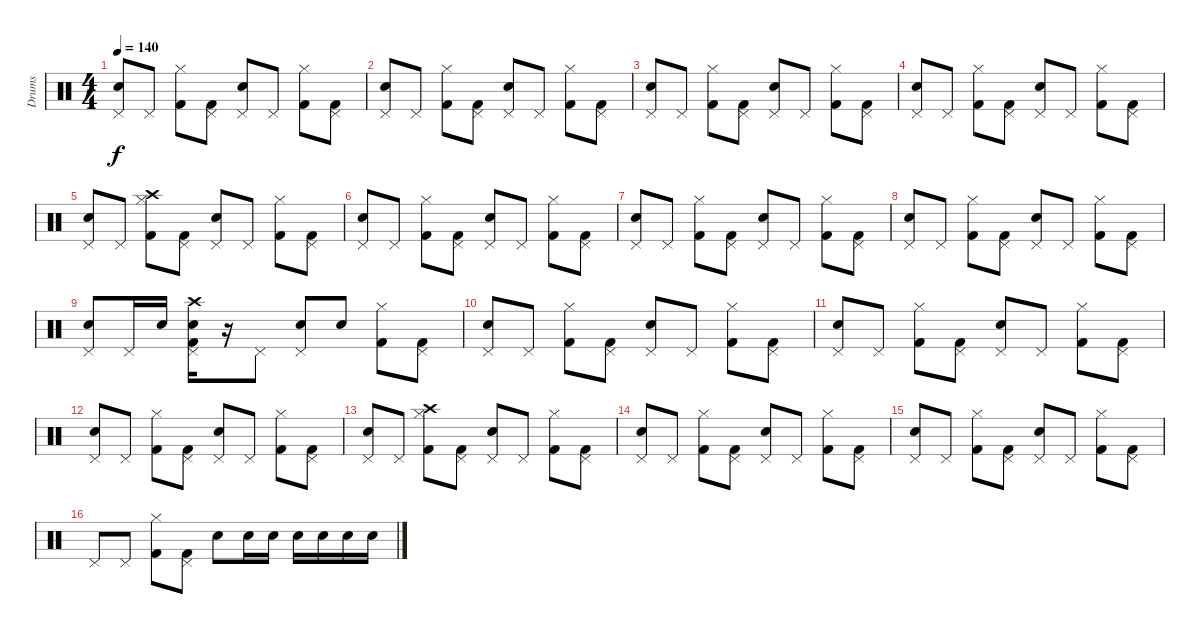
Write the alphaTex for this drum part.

\track ("Drums" "Drums") {instrument percussion}
\staff {score}
\articulation defaults
\ts (4 4)
\tempo 140
\clef neutral
\ks c
("Electric Snare (hit)" "Pedal Hi-Hat (hit)").8{dy f} "Pedal Hi-Hat (hit)".8 ("Kick (hit) 2" "Hi-Hat (closed)").8 ("Kick (hit) 2" "Pedal Hi-Hat (hit)").8 ("Electric Snare (hit)" "Pedal Hi-Hat (hit)").8 "Pedal Hi-Hat (hit)".8 ("Kick (hit) 2" "Hi-Hat (closed)").8 ("Kick (hit) 2" "Pedal Hi-Hat (hit)").8 |
("Electric Snare (hit)" "Pedal Hi-Hat (hit)").8 "Pedal Hi-Hat (hit)".8 ("Kick (hit) 2" "Hi-Hat (closed)").8 ("Kick (hit) 2" "Pedal Hi-Hat (hit)").8 ("Electric Snare (hit)" "Pedal Hi-Hat (hit)").8 "Pedal Hi-Hat (hit)".8 ("Kick (hit) 2" "Hi-Hat (closed)").8 ("Kick (hit) 2" "Pedal Hi-Hat (hit)").8 |
("Electric Snare (hit)" "Pedal Hi-Hat (hit)").8 "Pedal Hi-Hat (hit)".8 ("Kick (hit) 2" "Hi-Hat (closed)").8 ("Kick (hit) 2" "Pedal Hi-Hat (hit)").8 ("Electric Snare (hit)" "Pedal Hi-Hat (hit)").8 "Pedal Hi-Hat (hit)".8 ("Kick (hit) 2" "Hi-Hat (closed)").8 ("Kick (hit) 2" "Pedal Hi-Hat (hit)").8 |
("Electric Snare (hit)" "Pedal Hi-Hat (hit)").8 "Pedal Hi-Hat (hit)".8 ("Kick (hit) 2" "Hi-Hat (closed)").8 ("Kick (hit) 2" "Pedal Hi-Hat (hit)").8 ("Electric Snare (hit)" "Pedal Hi-Hat (hit)").8 "Pedal Hi-Hat (hit)".8 ("Kick (hit) 2" "Hi-Hat (closed)").8 ("Kick (hit) 2" "Pedal Hi-Hat (hit)").8 |
("Electric Snare (hit)" "Pedal Hi-Hat (hit)").8 "Pedal Hi-Hat (hit)".8 ("Crash high (hit)" "Kick (hit) 2" "Hi-Hat (closed)").8 ("Kick (hit) 2" "Pedal Hi-Hat (hit)").8 ("Electric Snare (hit)" "Pedal Hi-Hat (hit)").8 "Pedal Hi-Hat (hit)".8 ("Kick (hit) 2" "Hi-Hat (closed)").8 ("Kick (hit) 2" "Pedal Hi-Hat (hit)").8 |
("Electric Snare (hit)" "Pedal Hi-Hat (hit)").8 "Pedal Hi-Hat (hit)".8 ("Kick (hit) 2" "Hi-Hat (closed)").8 ("Kick (hit) 2" "Pedal Hi-Hat (hit)").8 ("Electric Snare (hit)" "Pedal Hi-Hat (hit)").8 "Pedal Hi-Hat (hit)".8 ("Kick (hit) 2" "Hi-Hat (closed)").8 ("Kick (hit) 2" "Pedal Hi-Hat (hit)").8 |
("Electric Snare (hit)" "Pedal Hi-Hat (hit)").8 "Pedal Hi-Hat (hit)".8 ("Kick (hit) 2" "Hi-Hat (closed)").8 ("Kick (hit) 2" "Pedal Hi-Hat (hit)").8 ("Electric Snare (hit)" "Pedal Hi-Hat (hit)").8 "Pedal Hi-Hat (hit)".8 ("Kick (hit) 2" "Hi-Hat (closed)").8 ("Kick (hit) 2" "Pedal Hi-Hat (hit)").8 |
("Electric Snare (hit)" "Pedal Hi-Hat (hit)").8 "Pedal Hi-Hat (hit)".8 ("Kick (hit) 2" "Hi-Hat (closed)").8 ("Kick (hit) 2" "Pedal Hi-Hat (hit)").8 ("Electric Snare (hit)" "Pedal Hi-Hat (hit)").8 "Pedal Hi-Hat (hit)".8 ("Kick (hit) 2" "Hi-Hat (closed)").8 ("Kick (hit) 2" "Pedal Hi-Hat (hit)").8 |
("Electric Snare (hit)" "Pedal Hi-Hat (hit)").8 "Pedal Hi-Hat (hit)".16 "Electric Snare (hit)".16 ("Electric Snare (hit)" "Kick (hit) 2" "Crash high (hit)" "Pedal Hi-Hat (hit)").16 r.16 "Pedal Hi-Hat (hit)".8 ("Electric Snare (hit)" "Pedal Hi-Hat (hit)").8 "Electric Snare (hit)".8 ("Kick (hit) 2" "Hi-Hat (closed)").8 ("Kick (hit) 2" "Pedal Hi-Hat (hit)").8 |
("Electric Snare (hit)" "Pedal Hi-Hat (hit)").8 "Pedal Hi-Hat (hit)".8 ("Kick (hit) 2" "Hi-Hat (closed)").8 ("Kick (hit) 2" "Pedal Hi-Hat (hit)").8 ("Electric Snare (hit)" "Pedal Hi-Hat (hit)").8 "Pedal Hi-Hat (hit)".8 ("Kick (hit) 2" "Hi-Hat (closed)").8 ("Kick (hit) 2" "Pedal Hi-Hat (hit)").8 |
("Electric Snare (hit)" "Pedal Hi-Hat (hit)").8 "Pedal Hi-Hat (hit)".8 ("Kick (hit) 2" "Hi-Hat (closed)").8 ("Kick (hit) 2" "Pedal Hi-Hat (hit)").8 ("Electric Snare (hit)" "Pedal Hi-Hat (hit)").8 "Pedal Hi-Hat (hit)".8 ("Kick (hit) 2" "Hi-Hat (closed)").8 ("Kick (hit) 2" "Pedal Hi-Hat (hit)").8 |
("Electric Snare (hit)" "Pedal Hi-Hat (hit)").8 "Pedal Hi-Hat (hit)".8 ("Kick (hit) 2" "Hi-Hat (closed)").8 ("Kick (hit) 2" "Pedal Hi-Hat (hit)").8 ("Electric Snare (hit)" "Pedal Hi-Hat (hit)").8 "Pedal Hi-Hat (hit)".8 ("Kick (hit) 2" "Hi-Hat (closed)").8 ("Kick (hit) 2" "Pedal Hi-Hat (hit)").8 |
("Electric Snare (hit)" "Pedal Hi-Hat (hit)").8 "Pedal Hi-Hat (hit)".8 ("Crash high (hit)" "Kick (hit) 2" "Hi-Hat (closed)").8 ("Kick (hit) 2" "Pedal Hi-Hat (hit)").8 ("Electric Snare (hit)" "Pedal Hi-Hat (hit)").8 "Pedal Hi-Hat (hit)".8 ("Kick (hit) 2" "Hi-Hat (closed)").8 ("Kick (hit) 2" "Pedal Hi-Hat (hit)").8 |
("Electric Snare (hit)" "Pedal Hi-Hat (hit)").8 "Pedal Hi-Hat (hit)".8 ("Kick (hit) 2" "Hi-Hat (closed)").8 ("Kick (hit) 2" "Pedal Hi-Hat (hit)").8 ("Electric Snare (hit)" "Pedal Hi-Hat (hit)").8 "Pedal Hi-Hat (hit)".8 ("Kick (hit) 2" "Hi-Hat (closed)").8 ("Kick (hit) 2" "Pedal Hi-Hat (hit)").8 |
("Electric Snare (hit)" "Pedal Hi-Hat (hit)").8 "Pedal Hi-Hat (hit)".8 ("Kick (hit) 2" "Hi-Hat (closed)").8 ("Kick (hit) 2" "Pedal Hi-Hat (hit)").8 ("Electric Snare (hit)" "Pedal Hi-Hat (hit)").8 "Pedal Hi-Hat (hit)".8 ("Kick (hit) 2" "Hi-Hat (closed)").8 ("Kick (hit) 2" "Pedal Hi-Hat (hit)").8 |
"Pedal Hi-Hat (hit)".8 "Pedal Hi-Hat (hit)".8 ("Kick (hit) 2" "Hi-Hat (closed)").8 ("Kick (hit) 2" "Pedal Hi-Hat (hit)").8 "Electric Snare (hit)".8 "Electric Snare (hit)".16 "Electric Snare (hit)".16 "Electric Snare (hit)".16 "Electric Snare (hit)".16 "Electric Snare (hit)".16 "Electric Snare (hit)".16
